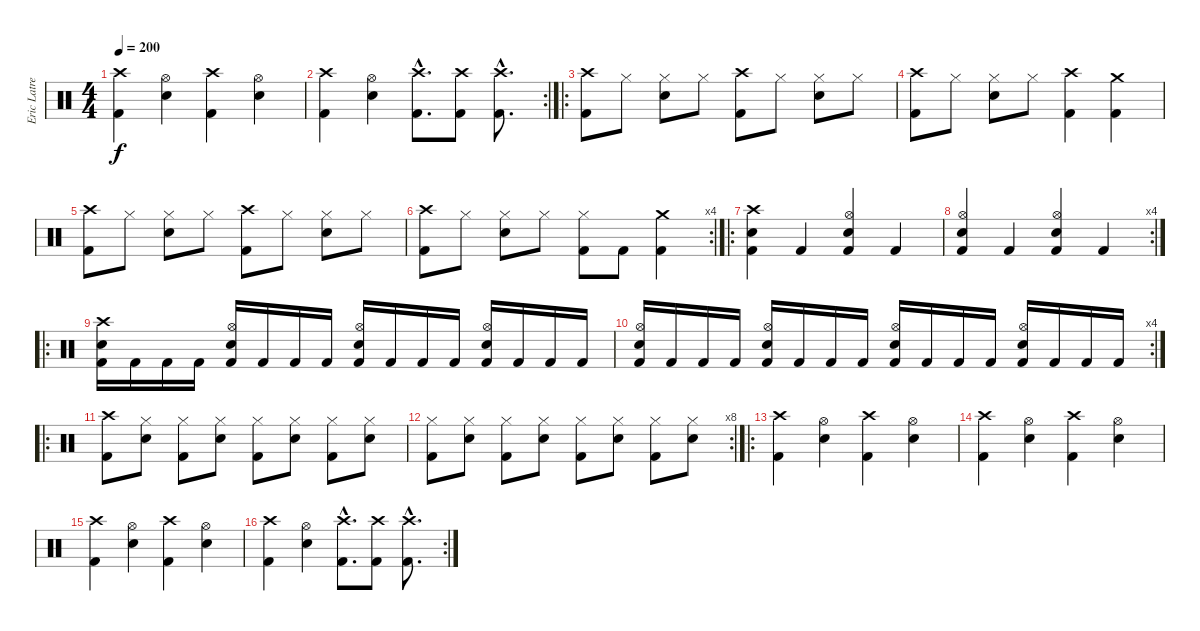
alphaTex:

\track ("Eric Latreille" "Eric Latre") {instrument percussion}
\staff {score}
\articulation defaults
\ts (4 4)
\tempo 200
\clef neutral
\ks c
("Crash high (hit)" "Kick (hit) 2").4{dy f} ("Hi-Hat (open)" "Snare (hit) 2").4 ("Crash high (hit)" "Kick (hit) 2").4 ("Hi-Hat (open)" "Snare (hit) 2").4 |
\rc 2
("Crash high (hit)" "Kick (hit) 2").4 ("Hi-Hat (open)" "Snare (hit) 2").4 ("Crash high (hit)"{hac} "Kick (hit) 2"{hac}).8{d} ("Crash high (hit)" "Kick (hit) 2").8 ("Crash high (hit)"{hac} "Kick (hit) 2"{hac}).8{d} |
\ro
("Crash high (hit)" "Kick (hit) 2").8 "Hi-Hat (closed)".8 ("Hi-Hat (closed)" "Snare (hit) 2").8 "Hi-Hat (closed)".8 ("Crash high (hit)" "Kick (hit) 2").8 "Hi-Hat (closed)".8 ("Hi-Hat (closed)" "Snare (hit) 2").8 "Hi-Hat (closed)".8 |
("Crash high (hit)" "Kick (hit) 2").8 "Hi-Hat (closed)".8 ("Hi-Hat (closed)" "Snare (hit) 2").8 "Hi-Hat (closed)".8 ("Crash high (hit)" "Kick (hit) 2").4 ("Crash medium (hit)" "Kick (hit) 2").4 |
("Crash high (hit)" "Kick (hit) 2").8 "Hi-Hat (closed)".8 ("Hi-Hat (closed)" "Snare (hit) 2").8 "Hi-Hat (closed)".8 ("Crash high (hit)" "Kick (hit) 2").8 "Hi-Hat (closed)".8 ("Hi-Hat (closed)" "Snare (hit) 2").8 "Hi-Hat (closed)".8 |
\rc 4
("Crash high (hit)" "Kick (hit) 2").8 "Hi-Hat (closed)".8 ("Hi-Hat (closed)" "Snare (hit) 2").8 "Hi-Hat (closed)".8 ("Hi-Hat (closed)" "Kick (hit) 2").8 "Kick (hit) 2".8 ("Crash medium (hit)" "Kick (hit) 2").4 |
\ro
("Crash high (hit)" "Snare (hit) 2" "Kick (hit) 2").4 "Kick (hit) 2".4 ("Hi-Hat (open)" "Snare (hit) 2" "Kick (hit) 2").4 "Kick (hit) 2".4 |
\rc 4
("Hi-Hat (open)" "Snare (hit) 2" "Kick (hit) 2").4 "Kick (hit) 2".4 ("Hi-Hat (open)" "Snare (hit) 2" "Kick (hit) 2").4 "Kick (hit) 2".4 |
\ro
("Crash high (hit)" "Snare (hit) 2" "Kick (hit) 2").16 "Kick (hit) 2".16 "Kick (hit) 2".16 "Kick (hit) 2".16 ("Hi-Hat (open)" "Snare (hit) 2" "Kick (hit) 2").16 "Kick (hit) 2".16 "Kick (hit) 2".16 "Kick (hit) 2".16 ("Hi-Hat (open)" "Snare (hit) 2" "Kick (hit) 2").16 "Kick (hit) 2".16 "Kick (hit) 2".16 "Kick (hit) 2".16 ("Hi-Hat (open)" "Snare (hit) 2" "Kick (hit) 2").16 "Kick (hit) 2".16 "Kick (hit) 2".16 "Kick (hit) 2".16 |
\rc 4
("Hi-Hat (open)" "Snare (hit) 2" "Kick (hit) 2").16 "Kick (hit) 2".16 "Kick (hit) 2".16 "Kick (hit) 2".16 ("Hi-Hat (open)" "Snare (hit) 2" "Kick (hit) 2").16 "Kick (hit) 2".16 "Kick (hit) 2".16 "Kick (hit) 2".16 ("Hi-Hat (open)" "Snare (hit) 2" "Kick (hit) 2").16 "Kick (hit) 2".16 "Kick (hit) 2".16 "Kick (hit) 2".16 ("Hi-Hat (open)" "Snare (hit) 2" "Kick (hit) 2").16 "Kick (hit) 2".16 "Kick (hit) 2".16 "Kick (hit) 2".16 |
\ro
("Crash high (hit)" "Kick (hit) 2").8 ("Hi-Hat (closed)" "Snare (hit) 2").8 ("Hi-Hat (closed)" "Kick (hit) 2").8 ("Hi-Hat (closed)" "Snare (hit) 2").8 ("Hi-Hat (closed)" "Kick (hit) 2").8 ("Hi-Hat (closed)" "Snare (hit) 2").8 ("Hi-Hat (closed)" "Kick (hit) 2").8 ("Hi-Hat (closed)" "Snare (hit) 2").8 |
\rc 8
("Hi-Hat (closed)" "Kick (hit) 2").8 ("Hi-Hat (closed)" "Snare (hit) 2").8 ("Hi-Hat (closed)" "Kick (hit) 2").8 ("Hi-Hat (closed)" "Snare (hit) 2").8 ("Hi-Hat (closed)" "Kick (hit) 2").8 ("Hi-Hat (closed)" "Snare (hit) 2").8 ("Hi-Hat (closed)" "Kick (hit) 2").8 ("Hi-Hat (closed)" "Snare (hit) 2").8 |
\ro
("Crash high (hit)" "Kick (hit) 2").4 ("Hi-Hat (open)" "Snare (hit) 2").4 ("Crash high (hit)" "Kick (hit) 2").4 ("Hi-Hat (open)" "Snare (hit) 2").4 |
("Crash high (hit)" "Kick (hit) 2").4 ("Hi-Hat (open)" "Snare (hit) 2").4 ("Crash high (hit)" "Kick (hit) 2").4 ("Hi-Hat (open)" "Snare (hit) 2").4 |
("Crash high (hit)" "Kick (hit) 2").4 ("Hi-Hat (open)" "Snare (hit) 2").4 ("Crash high (hit)" "Kick (hit) 2").4 ("Hi-Hat (open)" "Snare (hit) 2").4 |
\rc 2
("Crash high (hit)" "Kick (hit) 2").4 ("Hi-Hat (open)" "Snare (hit) 2").4 ("Crash high (hit)"{hac} "Kick (hit) 2"{hac}).8{d} ("Crash high (hit)" "Kick (hit) 2").8 ("Crash high (hit)"{hac} "Kick (hit) 2"{hac}).8{d}
